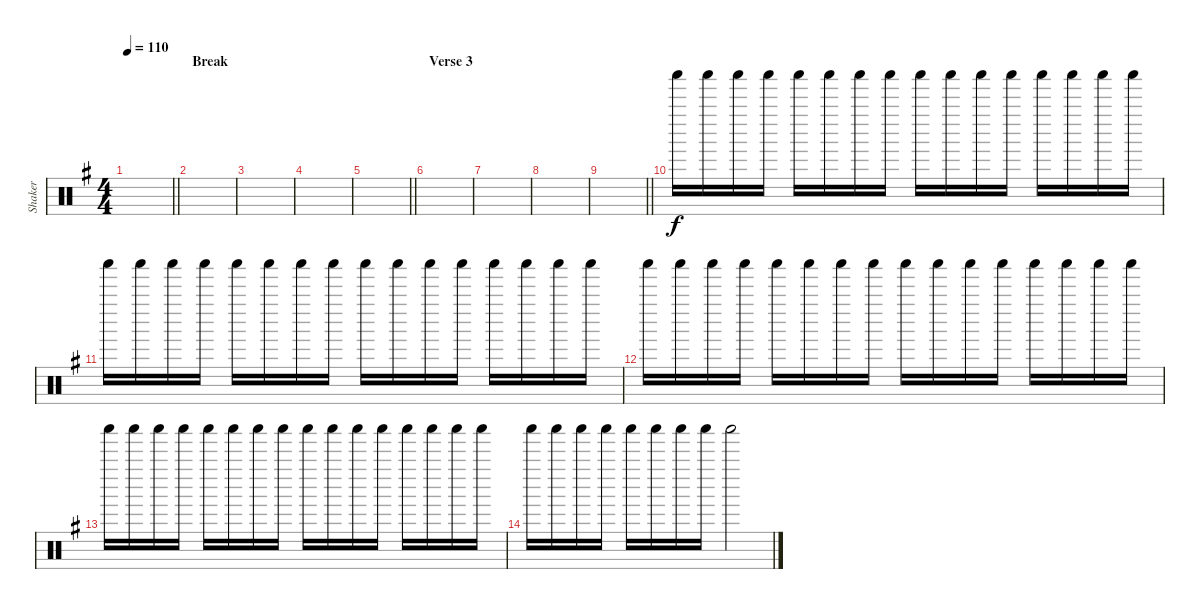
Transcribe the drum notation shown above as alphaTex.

\track ("Shaker" "Shaker") {instrument percussion}
\staff {score}
\articulation defaults
\ts (4 4)
\tempo 110
\clef neutral
\barLineRight lightlight
\ks g
|
\section ("" "Break")
|
|
|
\barLineRight lightlight
|
\section ("" "Verse 3")
|
|
|
\barLineRight lightlight
|
"Shaker (hit)".16 "Shaker (hit)".16 "Shaker (hit)".16 "Shaker (hit)".16 "Shaker (hit)".16 "Shaker (hit)".16 "Shaker (hit)".16 "Shaker (hit)".16 "Shaker (hit)".16 "Shaker (hit)".16 "Shaker (hit)".16 "Shaker (hit)".16 "Shaker (hit)".16 "Shaker (hit)".16 "Shaker (hit)".16 "Shaker (hit)".16 |
"Shaker (hit)".16 "Shaker (hit)".16 "Shaker (hit)".16 "Shaker (hit)".16 "Shaker (hit)".16 "Shaker (hit)".16 "Shaker (hit)".16 "Shaker (hit)".16 "Shaker (hit)".16 "Shaker (hit)".16 "Shaker (hit)".16 "Shaker (hit)".16 "Shaker (hit)".16 "Shaker (hit)".16 "Shaker (hit)".16 "Shaker (hit)".16 |
"Shaker (hit)".16 "Shaker (hit)".16 "Shaker (hit)".16 "Shaker (hit)".16 "Shaker (hit)".16 "Shaker (hit)".16 "Shaker (hit)".16 "Shaker (hit)".16 "Shaker (hit)".16 "Shaker (hit)".16 "Shaker (hit)".16 "Shaker (hit)".16 "Shaker (hit)".16 "Shaker (hit)".16 "Shaker (hit)".16 "Shaker (hit)".16 |
"Shaker (hit)".16 "Shaker (hit)".16 "Shaker (hit)".16 "Shaker (hit)".16 "Shaker (hit)".16 "Shaker (hit)".16 "Shaker (hit)".16 "Shaker (hit)".16 "Shaker (hit)".16 "Shaker (hit)".16 "Shaker (hit)".16 "Shaker (hit)".16 "Shaker (hit)".16 "Shaker (hit)".16 "Shaker (hit)".16 "Shaker (hit)".16 |
"Shaker (hit)".16 "Shaker (hit)".16 "Shaker (hit)".16 "Shaker (hit)".16 "Shaker (hit)".16 "Shaker (hit)".16 "Shaker (hit)".16 "Shaker (hit)".16 "Shaker (hit)".2
